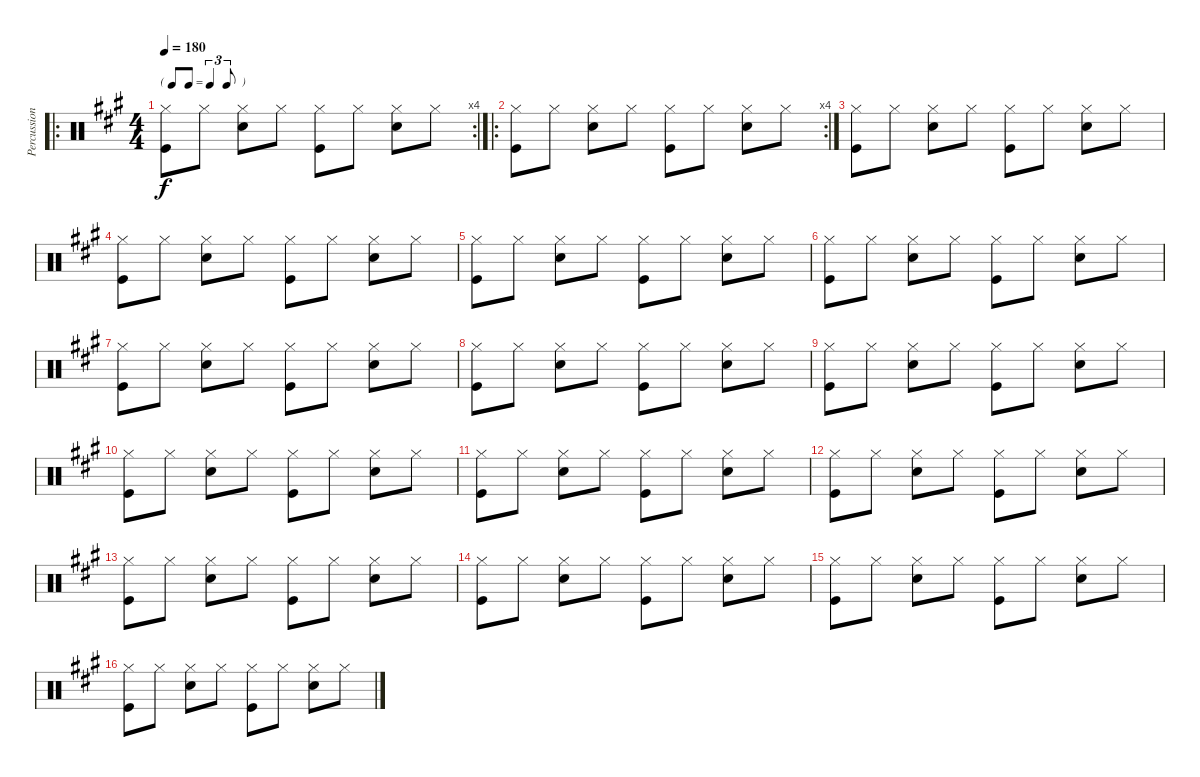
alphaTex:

\track ("Percussion" "Percussion") {instrument percussion}
\staff {score}
\articulation defaults
\ro
\rc 4
\ts (4 4)
\tf triplet8th
\tempo 180
\clef neutral
\ks a
("Hi-Hat (closed)" "Kick (hit)").8{dy f} "Hi-Hat (closed)".8 ("Hi-Hat (closed)" "Snare (hit) 2").8 "Hi-Hat (closed)".8 ("Hi-Hat (closed)" "Kick (hit)").8 "Hi-Hat (closed)".8 ("Hi-Hat (closed)" "Snare (hit) 2").8 "Hi-Hat (closed)".8 |
\ro
\rc 4
("Hi-Hat (closed)" "Kick (hit)").8 "Hi-Hat (closed)".8 ("Hi-Hat (closed)" "Snare (hit) 2").8 "Hi-Hat (closed)".8 ("Hi-Hat (closed)" "Kick (hit)").8 "Hi-Hat (closed)".8 ("Hi-Hat (closed)" "Snare (hit) 2").8 "Hi-Hat (closed)".8 |
("Hi-Hat (closed)" "Kick (hit)").8 "Hi-Hat (closed)".8 ("Hi-Hat (closed)" "Snare (hit) 2").8 "Hi-Hat (closed)".8 ("Hi-Hat (closed)" "Kick (hit)").8 "Hi-Hat (closed)".8 ("Hi-Hat (closed)" "Snare (hit) 2").8 "Hi-Hat (closed)".8 |
("Hi-Hat (closed)" "Kick (hit)").8 "Hi-Hat (closed)".8 ("Hi-Hat (closed)" "Snare (hit) 2").8 "Hi-Hat (closed)".8 ("Hi-Hat (closed)" "Kick (hit)").8 "Hi-Hat (closed)".8 ("Hi-Hat (closed)" "Snare (hit) 2").8 "Hi-Hat (closed)".8 |
("Hi-Hat (closed)" "Kick (hit)").8 "Hi-Hat (closed)".8 ("Hi-Hat (closed)" "Snare (hit) 2").8 "Hi-Hat (closed)".8 ("Hi-Hat (closed)" "Kick (hit)").8 "Hi-Hat (closed)".8 ("Hi-Hat (closed)" "Snare (hit) 2").8 "Hi-Hat (closed)".8 |
("Hi-Hat (closed)" "Kick (hit)").8 "Hi-Hat (closed)".8 ("Hi-Hat (closed)" "Snare (hit) 2").8 "Hi-Hat (closed)".8 ("Hi-Hat (closed)" "Kick (hit)").8 "Hi-Hat (closed)".8 ("Hi-Hat (closed)" "Snare (hit) 2").8 "Hi-Hat (closed)".8 |
("Hi-Hat (closed)" "Kick (hit)").8 "Hi-Hat (closed)".8 ("Hi-Hat (closed)" "Snare (hit) 2").8 "Hi-Hat (closed)".8 ("Hi-Hat (closed)" "Kick (hit)").8 "Hi-Hat (closed)".8 ("Hi-Hat (closed)" "Snare (hit) 2").8 "Hi-Hat (closed)".8 |
("Hi-Hat (closed)" "Kick (hit)").8 "Hi-Hat (closed)".8 ("Hi-Hat (closed)" "Snare (hit) 2").8 "Hi-Hat (closed)".8 ("Hi-Hat (closed)" "Kick (hit)").8 "Hi-Hat (closed)".8 ("Hi-Hat (closed)" "Snare (hit) 2").8 "Hi-Hat (closed)".8 |
("Hi-Hat (closed)" "Kick (hit)").8 "Hi-Hat (closed)".8 ("Hi-Hat (closed)" "Snare (hit) 2").8 "Hi-Hat (closed)".8 ("Hi-Hat (closed)" "Kick (hit)").8 "Hi-Hat (closed)".8 ("Hi-Hat (closed)" "Snare (hit) 2").8 "Hi-Hat (closed)".8 |
("Hi-Hat (closed)" "Kick (hit)").8 "Hi-Hat (closed)".8 ("Hi-Hat (closed)" "Snare (hit) 2").8 "Hi-Hat (closed)".8 ("Hi-Hat (closed)" "Kick (hit)").8 "Hi-Hat (closed)".8 ("Hi-Hat (closed)" "Snare (hit) 2").8 "Hi-Hat (closed)".8 |
("Hi-Hat (closed)" "Kick (hit)").8 "Hi-Hat (closed)".8 ("Hi-Hat (closed)" "Snare (hit) 2").8 "Hi-Hat (closed)".8 ("Hi-Hat (closed)" "Kick (hit)").8 "Hi-Hat (closed)".8 ("Hi-Hat (closed)" "Snare (hit) 2").8 "Hi-Hat (closed)".8 |
("Hi-Hat (closed)" "Kick (hit)").8 "Hi-Hat (closed)".8 ("Hi-Hat (closed)" "Snare (hit) 2").8 "Hi-Hat (closed)".8 ("Hi-Hat (closed)" "Kick (hit)").8 "Hi-Hat (closed)".8 ("Hi-Hat (closed)" "Snare (hit) 2").8 "Hi-Hat (closed)".8 |
("Hi-Hat (closed)" "Kick (hit)").8 "Hi-Hat (closed)".8 ("Hi-Hat (closed)" "Snare (hit) 2").8 "Hi-Hat (closed)".8 ("Hi-Hat (closed)" "Kick (hit)").8 "Hi-Hat (closed)".8 ("Hi-Hat (closed)" "Snare (hit) 2").8 "Hi-Hat (closed)".8 |
("Hi-Hat (closed)" "Kick (hit)").8 "Hi-Hat (closed)".8 ("Hi-Hat (closed)" "Snare (hit) 2").8 "Hi-Hat (closed)".8 ("Hi-Hat (closed)" "Kick (hit)").8 "Hi-Hat (closed)".8 ("Hi-Hat (closed)" "Snare (hit) 2").8 "Hi-Hat (closed)".8 |
("Hi-Hat (closed)" "Kick (hit)").8 "Hi-Hat (closed)".8 ("Hi-Hat (closed)" "Snare (hit) 2").8 "Hi-Hat (closed)".8 ("Hi-Hat (closed)" "Kick (hit)").8 "Hi-Hat (closed)".8 ("Hi-Hat (closed)" "Snare (hit) 2").8 "Hi-Hat (closed)".8 |
("Hi-Hat (closed)" "Kick (hit)").8 "Hi-Hat (closed)".8 ("Hi-Hat (closed)" "Snare (hit) 2").8 "Hi-Hat (closed)".8 ("Hi-Hat (closed)" "Kick (hit)").8 "Hi-Hat (closed)".8 ("Hi-Hat (closed)" "Snare (hit) 2").8 "Hi-Hat (closed)".8
